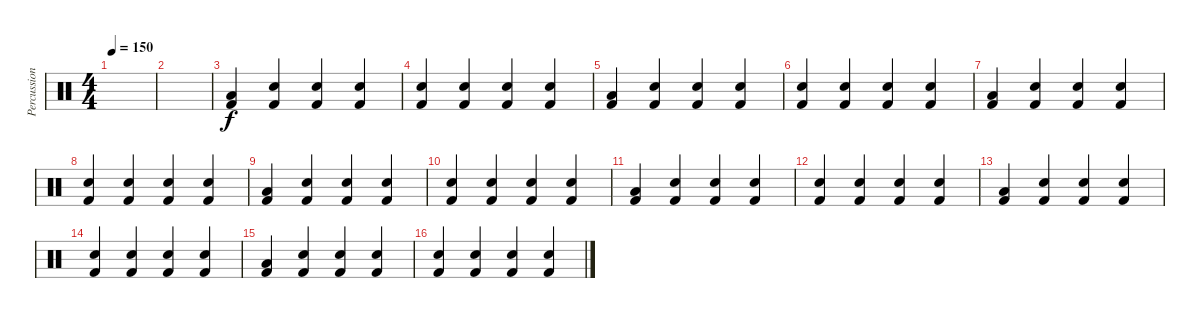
\track ("Percussion" "Percussion") {instrument percussion}
\staff {score}
\articulation defaults
\ts (4 4)
\tempo 150
\clef neutral
\ks c
|
|
("Kick (hit) 2" "Low Tom (hit)").4 ("Kick (hit) 2" "Snare (hit) 2").4 ("Kick (hit) 2" "Snare (hit) 2").4 ("Kick (hit) 2" "Snare (hit) 2").4 |
("Kick (hit) 2" "Snare (hit) 2").4 ("Kick (hit) 2" "Snare (hit) 2").4 ("Kick (hit) 2" "Snare (hit) 2").4 ("Kick (hit) 2" "Snare (hit) 2").4 |
("Kick (hit) 2" "Low Tom (hit)").4 ("Kick (hit) 2" "Snare (hit) 2").4 ("Kick (hit) 2" "Snare (hit) 2").4 ("Kick (hit) 2" "Snare (hit) 2").4 |
("Kick (hit) 2" "Snare (hit) 2").4 ("Kick (hit) 2" "Snare (hit) 2").4 ("Kick (hit) 2" "Snare (hit) 2").4 ("Kick (hit) 2" "Snare (hit) 2").4 |
("Kick (hit) 2" "Low Tom (hit)").4 ("Kick (hit) 2" "Snare (hit) 2").4 ("Kick (hit) 2" "Snare (hit) 2").4 ("Kick (hit) 2" "Snare (hit) 2").4 |
("Kick (hit) 2" "Snare (hit) 2").4 ("Kick (hit) 2" "Snare (hit) 2").4 ("Kick (hit) 2" "Snare (hit) 2").4 ("Kick (hit) 2" "Snare (hit) 2").4 |
("Kick (hit) 2" "Low Tom (hit)").4 ("Kick (hit) 2" "Snare (hit) 2").4 ("Kick (hit) 2" "Snare (hit) 2").4 ("Kick (hit) 2" "Snare (hit) 2").4 |
("Kick (hit) 2" "Snare (hit) 2").4 ("Kick (hit) 2" "Snare (hit) 2").4 ("Kick (hit) 2" "Snare (hit) 2").4 ("Kick (hit) 2" "Snare (hit) 2").4 |
("Kick (hit) 2" "Low Tom (hit)").4 ("Kick (hit) 2" "Snare (hit) 2").4 ("Kick (hit) 2" "Snare (hit) 2").4 ("Kick (hit) 2" "Snare (hit) 2").4 |
("Kick (hit) 2" "Snare (hit) 2").4 ("Kick (hit) 2" "Snare (hit) 2").4 ("Kick (hit) 2" "Snare (hit) 2").4 ("Kick (hit) 2" "Snare (hit) 2").4 |
("Kick (hit) 2" "Low Tom (hit)").4 ("Kick (hit) 2" "Snare (hit) 2").4 ("Kick (hit) 2" "Snare (hit) 2").4 ("Kick (hit) 2" "Snare (hit) 2").4 |
("Kick (hit) 2" "Snare (hit) 2").4 ("Kick (hit) 2" "Snare (hit) 2").4 ("Kick (hit) 2" "Snare (hit) 2").4 ("Kick (hit) 2" "Snare (hit) 2").4 |
("Kick (hit) 2" "Low Tom (hit)").4 ("Kick (hit) 2" "Snare (hit) 2").4 ("Kick (hit) 2" "Snare (hit) 2").4 ("Kick (hit) 2" "Snare (hit) 2").4 |
("Kick (hit) 2" "Snare (hit) 2").4 ("Kick (hit) 2" "Snare (hit) 2").4 ("Kick (hit) 2" "Snare (hit) 2").4 ("Kick (hit) 2" "Snare (hit) 2").4
